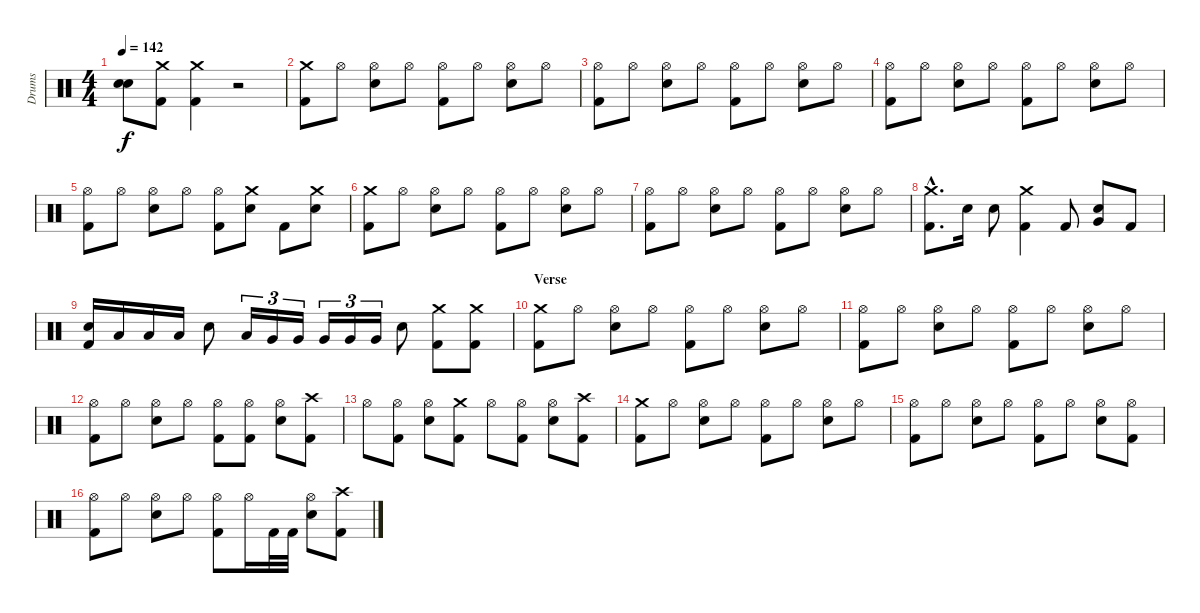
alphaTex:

\track ("Drums" "Drums") {instrument percussion}
\staff {score}
\articulation defaults
\ts (4 4)
\tempo 142
\clef neutral
\ks c
("Snare (hit)"{t} "Snare (hit)"{t}).8{dy f} ("Crash medium (hit)" "Kick (hit) 2").8 ("Crash medium (hit)" "Kick (hit) 2").4 r.2 |
("Crash medium (hit)" "Kick (hit) 2").8 "Hi-Hat (open)".8 ("Hi-Hat (open)" "Snare (hit) 2").8 "Hi-Hat (open)".8 ("Hi-Hat (open)" "Kick (hit) 2").8 "Hi-Hat (open)".8 ("Hi-Hat (open)" "Snare (hit) 2").8 "Hi-Hat (open)".8 |
("Hi-Hat (open)" "Kick (hit) 2").8 "Hi-Hat (open)".8 ("Hi-Hat (open)" "Snare (hit) 2").8 "Hi-Hat (open)".8 ("Hi-Hat (open)" "Kick (hit) 2").8 "Hi-Hat (open)".8 ("Hi-Hat (open)" "Snare (hit) 2").8 "Hi-Hat (open)".8 |
("Hi-Hat (open)" "Kick (hit) 2").8 "Hi-Hat (open)".8 ("Hi-Hat (open)" "Snare (hit) 2").8 "Hi-Hat (open)".8 ("Hi-Hat (open)" "Kick (hit) 2").8 "Hi-Hat (open)".8 ("Hi-Hat (open)" "Snare (hit) 2").8 "Hi-Hat (open)".8 |
("Hi-Hat (open)" "Kick (hit) 2").8 "Hi-Hat (open)".8 ("Hi-Hat (open)" "Snare (hit) 2").8 "Hi-Hat (open)".8 ("Hi-Hat (open)" "Kick (hit) 2").8 ("Crash medium (hit)" "Snare (hit) 2").8 "Kick (hit) 2".8 ("Crash medium (hit)" "Snare (hit) 2").8 |
("Crash medium (hit)" "Kick (hit) 2").8 "Hi-Hat (open)".8 ("Hi-Hat (open)" "Snare (hit) 2").8 "Hi-Hat (open)".8 ("Hi-Hat (open)" "Kick (hit) 2").8 "Hi-Hat (open)".8 ("Hi-Hat (open)" "Snare (hit) 2").8 "Hi-Hat (open)".8 |
("Hi-Hat (open)" "Kick (hit) 2").8 "Hi-Hat (open)".8 ("Hi-Hat (open)" "Snare (hit) 2").8 "Hi-Hat (open)".8 ("Hi-Hat (open)" "Kick (hit) 2").8 "Hi-Hat (open)".8 ("Hi-Hat (open)" "Snare (hit) 2").8 "Hi-Hat (open)".8 |
("Crash medium (hit)"{hac} "Kick (hit) 2"{hac}).8{d} "Snare (hit) 2".16 "Snare (hit) 2".8 ("Crash medium (hit)" "Kick (hit) 2").4 "Kick (hit) 2".8 ("Snare (hit) 2" "Very Low Tom (hit)").8 "Kick (hit) 2".8 |
("Snare (hit) 2" "Kick (hit) 2").16 "Low Tom (hit)".16 "Low Tom (hit)".16 "Low Tom (hit)".16 "Snare (hit) 2".8 "Low Tom (hit)".16{tu (3 2)} "Very Low Tom (hit)".16{tu (3 2)} "Very Low Tom (hit)".16{tu (3 2)} "Very Low Tom (hit)".16{tu (3 2)} "Very Low Tom (hit)".16{tu (3 2)} "Very Low Tom (hit)".16{tu (3 2)} "Snare (hit) 2".8 ("Crash medium (hit)" "Kick (hit) 2").8 ("Crash medium (hit)" "Kick (hit) 2").8 |
\section ("" "Verse")
("Crash medium (hit)" "Kick (hit) 2").8 "Hi-Hat (open)".8 ("Hi-Hat (open)" "Snare (hit) 2").8 "Hi-Hat (open)".8 ("Hi-Hat (open)" "Kick (hit) 2").8 "Hi-Hat (open)".8 ("Hi-Hat (open)" "Snare (hit) 2").8 "Hi-Hat (open)".8 |
("Hi-Hat (open)" "Kick (hit) 2").8 "Hi-Hat (open)".8 ("Hi-Hat (open)" "Snare (hit) 2").8 "Hi-Hat (open)".8 ("Hi-Hat (open)" "Kick (hit) 2").8 "Hi-Hat (open)".8 ("Hi-Hat (open)" "Snare (hit) 2").8 "Hi-Hat (open)".8 |
("Hi-Hat (open)" "Kick (hit) 2").8 "Hi-Hat (open)".8 ("Hi-Hat (open)" "Snare (hit) 2").8 "Hi-Hat (open)".8 ("Hi-Hat (open)" "Kick (hit) 2").8 ("Hi-Hat (open)" "Kick (hit) 2").8 ("Hi-Hat (open)" "Snare (hit) 2").8 ("Crash high (hit)" "Kick (hit) 2").8 |
"Hi-Hat (open)".8 ("Hi-Hat (open)" "Kick (hit) 2").8 ("Hi-Hat (open)" "Snare (hit) 2").8 ("Crash medium (hit)" "Kick (hit) 2").8 "Hi-Hat (open)".8 ("Hi-Hat (open)" "Kick (hit) 2").8 ("Hi-Hat (open)" "Snare (hit) 2").8 ("Crash high (hit)" "Kick (hit) 2").8 |
("Crash medium (hit)" "Kick (hit) 2").8 "Hi-Hat (open)".8 ("Hi-Hat (open)" "Snare (hit) 2").8 "Hi-Hat (open)".8 ("Hi-Hat (open)" "Kick (hit) 2").8 "Hi-Hat (open)".8 ("Hi-Hat (open)" "Snare (hit) 2").8 "Hi-Hat (open)".8 |
("Hi-Hat (open)" "Kick (hit) 2").8 "Hi-Hat (open)".8 ("Hi-Hat (open)" "Snare (hit) 2").8 "Hi-Hat (open)".8 ("Hi-Hat (open)" "Kick (hit) 2").8 "Hi-Hat (open)".8 ("Hi-Hat (open)" "Snare (hit) 2").8 ("Hi-Hat (open)" "Kick (hit) 2").8 |
("Hi-Hat (open)" "Kick (hit) 2").8 "Hi-Hat (open)".8 ("Hi-Hat (open)" "Snare (hit) 2").8 "Hi-Hat (open)".8 ("Hi-Hat (open)" "Kick (hit) 2").8 "Hi-Hat (open)".16 "Kick (hit) 2".32 "Kick (hit) 2".32 ("Hi-Hat (open)" "Snare (hit) 2").8 ("Crash high (hit)" "Kick (hit) 2").8
